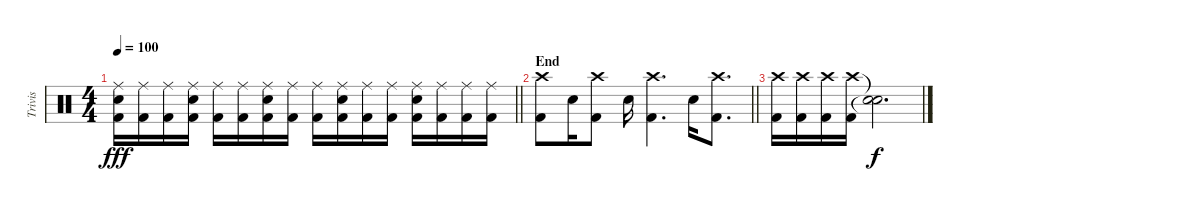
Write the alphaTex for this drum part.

\track ("Trivis" "Trivis") {instrument percussion}
\staff {score}
\articulation defaults
\ts (4 4)
\tempo 100
\clef neutral
\barLineRight lightlight
\ks c
("Ride (middle)" "Snare (hit) 2" "Kick (hit) 2").16{dy fff} ("Ride (middle)" "Kick (hit) 2").16 ("Ride (middle)" "Kick (hit) 2").16 ("Ride (middle)" "Snare (hit) 2" "Kick (hit) 2").16 ("Ride (middle)" "Kick (hit) 2").16 ("Ride (middle)" "Kick (hit) 2").16 ("Ride (middle)" "Snare (hit) 2" "Kick (hit) 2").16 ("Ride (middle)" "Kick (hit) 2").16 ("Ride (middle)" "Kick (hit) 2").16 ("Ride (middle)" "Snare (hit) 2" "Kick (hit) 2").16 ("Ride (middle)" "Kick (hit) 2").16 ("Ride (middle)" "Kick (hit) 2").16 ("Ride (middle)" "Snare (hit) 2" "Kick (hit) 2").16 ("Ride (middle)" "Kick (hit) 2").16 ("Ride (middle)" "Kick (hit) 2").16 ("Ride (middle)" "Kick (hit) 2").16 |
\section ("" "End")
\barLineRight lightlight
("Crash high (hit)" "Kick (hit) 2").8 "Snare (hit) 2".16 ("Crash high (hit)" "Kick (hit) 2").8 "Snare (hit) 2".16 ("Crash high (hit)" "Kick (hit) 2").4{d} "Snare (hit) 2".16 ("Crash high (hit)" "Kick (hit) 2").8{d} |
("Crash high (hit)" "Kick (hit) 2").16 ("Crash high (hit)" "Kick (hit) 2").16 ("Crash high (hit)" "Kick (hit) 2").16 ("Crash high (hit)" "Kick (hit) 2").16 ("Snare (hit)"{t} "Snare (hit)"{t}).2{d dy f}
